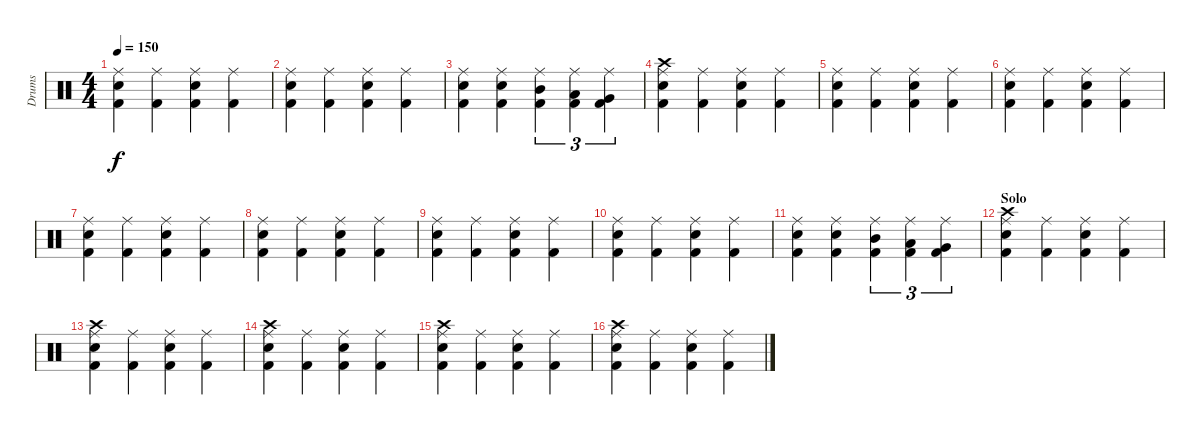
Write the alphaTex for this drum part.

\track ("Drums" "Drums") {instrument percussion}
\staff {score}
\articulation defaults
\ts (4 4)
\tempo 150
\clef neutral
\ks c
("Ride (middle)" "Electric Snare (hit)" "Kick (hit) 2").4{dy f} ("Ride (middle)" "Kick (hit) 2").4 ("Ride (middle)" "Electric Snare (hit)" "Kick (hit) 2").4 ("Ride (middle)" "Kick (hit) 2").4 |
("Ride (middle)" "Electric Snare (hit)" "Kick (hit) 2").4 ("Ride (middle)" "Kick (hit) 2").4 ("Ride (middle)" "Electric Snare (hit)" "Kick (hit) 2").4 ("Ride (middle)" "Kick (hit) 2").4 |
("Ride (middle)" "Electric Snare (hit)" "Kick (hit) 2").4 ("Ride (middle)" "Snare (hit) 2" "Kick (hit) 2").4 ("Ride (middle)" "Mid Tom (hit)" "Kick (hit) 2").4{tu (3 2)} ("Ride (middle)" "Low Tom (hit)" "Kick (hit) 2").4{tu (3 2)} ("Ride (middle)" "Very Low Tom (hit)" "Kick (hit) 2").4{tu (3 2)} |
("Crash high (hit)" "Ride (middle)" "Electric Snare (hit)" "Kick (hit) 2").4 ("Ride (middle)" "Kick (hit) 2").4 ("Ride (middle)" "Electric Snare (hit)" "Kick (hit) 2").4 ("Ride (middle)" "Kick (hit) 2").4 |
("Ride (middle)" "Electric Snare (hit)" "Kick (hit) 2").4 ("Ride (middle)" "Kick (hit) 2").4 ("Ride (middle)" "Electric Snare (hit)" "Kick (hit) 2").4 ("Ride (middle)" "Kick (hit) 2").4 |
("Ride (middle)" "Electric Snare (hit)" "Kick (hit) 2").4 ("Ride (middle)" "Kick (hit) 2").4 ("Ride (middle)" "Electric Snare (hit)" "Kick (hit) 2").4 ("Ride (middle)" "Kick (hit) 2").4 |
("Ride (middle)" "Electric Snare (hit)" "Kick (hit) 2").4 ("Ride (middle)" "Kick (hit) 2").4 ("Ride (middle)" "Electric Snare (hit)" "Kick (hit) 2").4 ("Ride (middle)" "Kick (hit) 2").4 |
("Ride (middle)" "Electric Snare (hit)" "Kick (hit) 2").4 ("Ride (middle)" "Kick (hit) 2").4 ("Ride (middle)" "Electric Snare (hit)" "Kick (hit) 2").4 ("Ride (middle)" "Kick (hit) 2").4 |
("Ride (middle)" "Electric Snare (hit)" "Kick (hit) 2").4 ("Ride (middle)" "Kick (hit) 2").4 ("Ride (middle)" "Electric Snare (hit)" "Kick (hit) 2").4 ("Ride (middle)" "Kick (hit) 2").4 |
("Ride (middle)" "Electric Snare (hit)" "Kick (hit) 2").4 ("Ride (middle)" "Kick (hit) 2").4 ("Ride (middle)" "Electric Snare (hit)" "Kick (hit) 2").4 ("Ride (middle)" "Kick (hit) 2").4 |
("Ride (middle)" "Electric Snare (hit)" "Kick (hit) 2").4 ("Ride (middle)" "Snare (hit) 2" "Kick (hit) 2").4 ("Ride (middle)" "Mid Tom (hit)" "Kick (hit) 2").4{tu (3 2)} ("Ride (middle)" "Low Tom (hit)" "Kick (hit) 2").4{tu (3 2)} ("Ride (middle)" "Very Low Tom (hit)" "Kick (hit) 2").4{tu (3 2)} |
\section ("" "Solo")
("Crash high (hit)" "Ride (middle)" "Electric Snare (hit)" "Kick (hit) 2").4 ("Ride (middle)" "Kick (hit) 2").4 ("Ride (middle)" "Electric Snare (hit)" "Kick (hit) 2").4 ("Ride (middle)" "Kick (hit) 2").4 |
("Crash high (hit)" "Ride (middle)" "Electric Snare (hit)" "Kick (hit) 2").4 ("Ride (middle)" "Kick (hit) 2").4 ("Ride (middle)" "Electric Snare (hit)" "Kick (hit) 2").4 ("Ride (middle)" "Kick (hit) 2").4 |
("Crash high (hit)" "Ride (middle)" "Electric Snare (hit)" "Kick (hit) 2").4 ("Ride (middle)" "Kick (hit) 2").4 ("Ride (middle)" "Electric Snare (hit)" "Kick (hit) 2").4 ("Ride (middle)" "Kick (hit) 2").4 |
("Crash high (hit)" "Ride (middle)" "Electric Snare (hit)" "Kick (hit) 2").4 ("Ride (middle)" "Kick (hit) 2").4 ("Ride (middle)" "Electric Snare (hit)" "Kick (hit) 2").4 ("Ride (middle)" "Kick (hit) 2").4 |
("Crash high (hit)" "Ride (middle)" "Electric Snare (hit)" "Kick (hit) 2").4 ("Ride (middle)" "Kick (hit) 2").4 ("Ride (middle)" "Electric Snare (hit)" "Kick (hit) 2").4 ("Ride (middle)" "Kick (hit) 2").4
